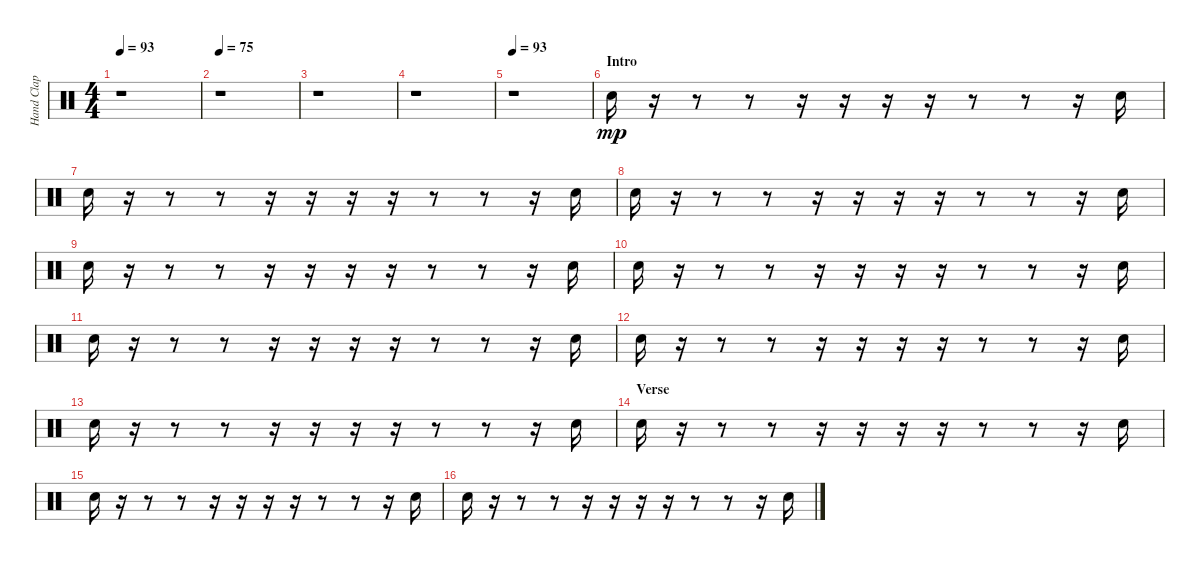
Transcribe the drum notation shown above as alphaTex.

\track ("Hand Clap" "Hand Clap") {instrument percussion}
\staff {score}
\articulation defaults
\ts (4 4)
\tempo 93
\clef neutral
\ks c
r.1{dy mp} |
\tempo 75
r.1 |
r.1 |
r.1 |
\tempo 93
r.1 |
\section ("" "Intro")
"Hand Clap (hit)".16 r.16 r.8 r.8 r.16 r.16 r.16 r.16 r.8 r.8 r.16 "Hand Clap (hit)".16 |
"Hand Clap (hit)".16 r.16 r.8 r.8 r.16 r.16 r.16 r.16 r.8 r.8 r.16 "Hand Clap (hit)".16 |
"Hand Clap (hit)".16 r.16 r.8 r.8 r.16 r.16 r.16 r.16 r.8 r.8 r.16 "Hand Clap (hit)".16 |
"Hand Clap (hit)".16 r.16 r.8 r.8 r.16 r.16 r.16 r.16 r.8 r.8 r.16 "Hand Clap (hit)".16 |
"Hand Clap (hit)".16 r.16 r.8 r.8 r.16 r.16 r.16 r.16 r.8 r.8 r.16 "Hand Clap (hit)".16 |
"Hand Clap (hit)".16 r.16 r.8 r.8 r.16 r.16 r.16 r.16 r.8 r.8 r.16 "Hand Clap (hit)".16 |
"Hand Clap (hit)".16 r.16 r.8 r.8 r.16 r.16 r.16 r.16 r.8 r.8 r.16 "Hand Clap (hit)".16 |
"Hand Clap (hit)".16 r.16 r.8 r.8 r.16 r.16 r.16 r.16 r.8 r.8 r.16 "Hand Clap (hit)".16 |
\section ("" "Verse")
"Hand Clap (hit)".16 r.16 r.8 r.8 r.16 r.16 r.16 r.16 r.8 r.8 r.16 "Hand Clap (hit)".16 |
"Hand Clap (hit)".16 r.16 r.8 r.8 r.16 r.16 r.16 r.16 r.8 r.8 r.16 "Hand Clap (hit)".16 |
"Hand Clap (hit)".16 r.16 r.8 r.8 r.16 r.16 r.16 r.16 r.8 r.8 r.16 "Hand Clap (hit)".16
